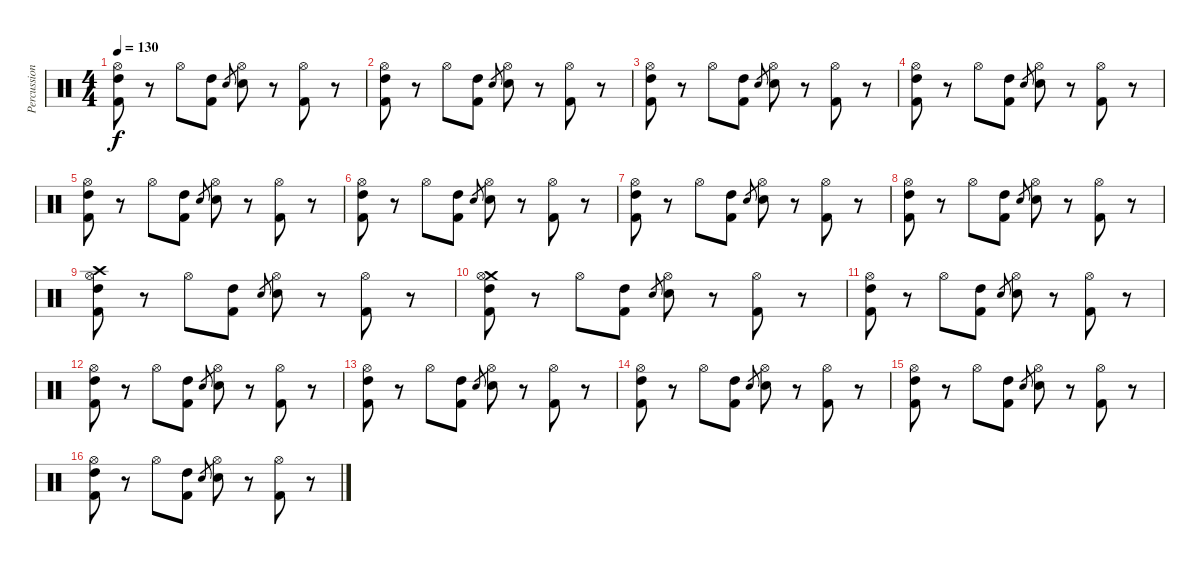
\track ("Percussion" "Percussion") {instrument percussion}
\staff {score}
\articulation defaults
\ts (4 4)
\tempo 130
\clef neutral
\ks c
("Hi-Hat (open)" "High Tom (hit)" "Kick (hit) 2").8{dy f} r.8 "Hi-Hat (open)".8 ("High Tom (hit)" "Kick (hit) 2").8 "Snare (hit) 2".8{gr} ("Hi-Hat (open)" "Snare (hit) 2").8 r.8 ("Hi-Hat (open)" "Kick (hit) 2").8 r.8 |
("Hi-Hat (open)" "High Tom (hit)" "Kick (hit) 2").8 r.8 "Hi-Hat (open)".8 ("High Tom (hit)" "Kick (hit) 2").8 "Snare (hit) 2".8{gr} ("Hi-Hat (open)" "Snare (hit) 2").8 r.8 ("Hi-Hat (open)" "Kick (hit) 2").8 r.8 |
("Hi-Hat (open)" "High Tom (hit)" "Kick (hit) 2").8 r.8 "Hi-Hat (open)".8 ("High Tom (hit)" "Kick (hit) 2").8 "Snare (hit) 2".8{gr} ("Hi-Hat (open)" "Snare (hit) 2").8 r.8 ("Hi-Hat (open)" "Kick (hit) 2").8 r.8 |
("Hi-Hat (open)" "High Tom (hit)" "Kick (hit) 2").8 r.8 "Hi-Hat (open)".8 ("High Tom (hit)" "Kick (hit) 2").8 "Snare (hit) 2".8{gr} ("Hi-Hat (open)" "Snare (hit) 2").8 r.8 ("Hi-Hat (open)" "Kick (hit) 2").8 r.8 |
("Hi-Hat (open)" "High Tom (hit)" "Kick (hit) 2").8 r.8 "Hi-Hat (open)".8 ("High Tom (hit)" "Kick (hit) 2").8 "Snare (hit) 2".8{gr} ("Hi-Hat (open)" "Snare (hit) 2").8 r.8 ("Hi-Hat (open)" "Kick (hit) 2").8 r.8 |
("Hi-Hat (open)" "High Tom (hit)" "Kick (hit) 2").8 r.8 "Hi-Hat (open)".8 ("High Tom (hit)" "Kick (hit) 2").8 "Snare (hit) 2".8{gr} ("Hi-Hat (open)" "Snare (hit) 2").8 r.8 ("Hi-Hat (open)" "Kick (hit) 2").8 r.8 |
("Hi-Hat (open)" "High Tom (hit)" "Kick (hit) 2").8 r.8 "Hi-Hat (open)".8 ("High Tom (hit)" "Kick (hit) 2").8 "Snare (hit) 2".8{gr} ("Hi-Hat (open)" "Snare (hit) 2").8 r.8 ("Hi-Hat (open)" "Kick (hit) 2").8 r.8 |
("Hi-Hat (open)" "High Tom (hit)" "Kick (hit) 2").8 r.8 "Hi-Hat (open)".8 ("High Tom (hit)" "Kick (hit) 2").8 "Snare (hit) 2".8{gr} ("Hi-Hat (open)" "Snare (hit) 2").8 r.8 ("Hi-Hat (open)" "Kick (hit) 2").8 r.8 |
("Crash high (hit)" "Hi-Hat (open)" "High Tom (hit)" "Kick (hit) 2").8 r.8 "Hi-Hat (open)".8 ("High Tom (hit)" "Kick (hit) 2").8 "Snare (hit) 2".8{gr} ("Hi-Hat (open)" "Snare (hit) 2").8 r.8 ("Hi-Hat (open)" "Kick (hit) 2").8 r.8 |
("Crash medium (hit)" "Hi-Hat (open)" "High Tom (hit)" "Kick (hit) 2").8 r.8 "Hi-Hat (open)".8 ("High Tom (hit)" "Kick (hit) 2").8 "Snare (hit) 2".8{gr} ("Hi-Hat (open)" "Snare (hit) 2").8 r.8 ("Hi-Hat (open)" "Kick (hit) 2").8 r.8 |
("Hi-Hat (open)" "High Tom (hit)" "Kick (hit) 2").8 r.8 "Hi-Hat (open)".8 ("High Tom (hit)" "Kick (hit) 2").8 "Snare (hit) 2".8{gr} ("Hi-Hat (open)" "Snare (hit) 2").8 r.8 ("Hi-Hat (open)" "Kick (hit) 2").8 r.8 |
("Hi-Hat (open)" "High Tom (hit)" "Kick (hit) 2").8 r.8 "Hi-Hat (open)".8 ("High Tom (hit)" "Kick (hit) 2").8 "Snare (hit) 2".8{gr} ("Hi-Hat (open)" "Snare (hit) 2").8 r.8 ("Hi-Hat (open)" "Kick (hit) 2").8 r.8 |
("Hi-Hat (open)" "High Tom (hit)" "Kick (hit) 2").8 r.8 "Hi-Hat (open)".8 ("High Tom (hit)" "Kick (hit) 2").8 "Snare (hit) 2".8{gr} ("Hi-Hat (open)" "Snare (hit) 2").8 r.8 ("Hi-Hat (open)" "Kick (hit) 2").8 r.8 |
("Hi-Hat (open)" "High Tom (hit)" "Kick (hit) 2").8 r.8 "Hi-Hat (open)".8 ("High Tom (hit)" "Kick (hit) 2").8 "Snare (hit) 2".8{gr} ("Hi-Hat (open)" "Snare (hit) 2").8 r.8 ("Hi-Hat (open)" "Kick (hit) 2").8 r.8 |
("Hi-Hat (open)" "High Tom (hit)" "Kick (hit) 2").8 r.8 "Hi-Hat (open)".8 ("High Tom (hit)" "Kick (hit) 2").8 "Snare (hit) 2".8{gr} ("Hi-Hat (open)" "Snare (hit) 2").8 r.8 ("Hi-Hat (open)" "Kick (hit) 2").8 r.8 |
("Hi-Hat (open)" "High Tom (hit)" "Kick (hit) 2").8 r.8 "Hi-Hat (open)".8 ("High Tom (hit)" "Kick (hit) 2").8 "Snare (hit) 2".8{gr} ("Hi-Hat (open)" "Snare (hit) 2").8 r.8 ("Hi-Hat (open)" "Kick (hit) 2").8 r.8
